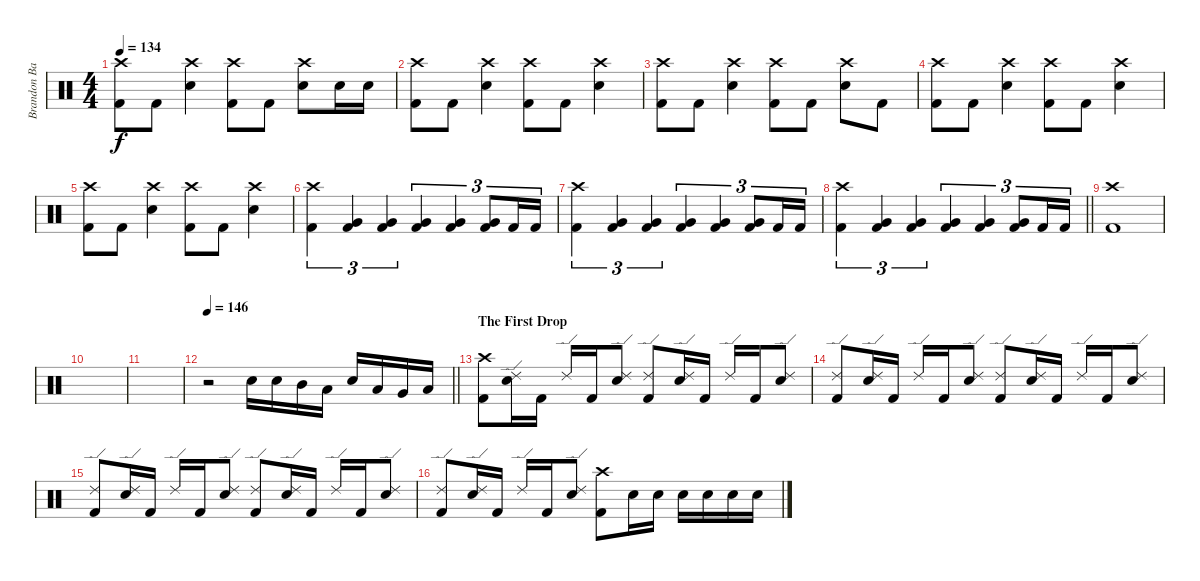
\track ("Brandon Barnes - Drums" "Brandon Ba") {instrument percussion}
\staff {score}
\articulation defaults
\ts (4 4)
\tempo 134
\clef neutral
\ks c
("Crash high (hit)" "Kick (hit) 2").8{dy f} "Kick (hit) 2".8 ("Snare (hit) 2" "Crash high (hit)").4 ("Crash high (hit)" "Kick (hit) 2").8 "Kick (hit) 2".8 ("Snare (hit) 2" "Crash high (hit)").8 "Snare (hit) 2".16 "Snare (hit) 2".16 |
("Crash high (hit)" "Kick (hit) 2").8 "Kick (hit) 2".8 ("Snare (hit) 2" "Crash high (hit)").4 ("Crash high (hit)" "Kick (hit) 2").8 "Kick (hit) 2".8 ("Snare (hit) 2" "Crash high (hit)").4 |
("Crash high (hit)" "Kick (hit) 2").8 "Kick (hit) 2".8 ("Snare (hit) 2" "Crash high (hit)").4 ("Crash high (hit)" "Kick (hit) 2").8 "Kick (hit) 2".8 ("Snare (hit) 2" "Crash high (hit)").8 "Kick (hit) 2".8 |
("Crash high (hit)" "Kick (hit) 2").8 "Kick (hit) 2".8 ("Snare (hit) 2" "Crash high (hit)").4 ("Crash high (hit)" "Kick (hit) 2").8 "Kick (hit) 2".8 ("Snare (hit) 2" "Crash high (hit)").4 |
("Crash high (hit)" "Kick (hit) 2").8 "Kick (hit) 2".8 ("Snare (hit) 2" "Crash high (hit)").4 ("Crash high (hit)" "Kick (hit) 2").8 "Kick (hit) 2".8 ("Snare (hit) 2" "Crash high (hit)").4 |
("Crash high (hit)" "Kick (hit) 2").4{tu (3 2)} ("Very Low Tom (hit)" "Kick (hit) 2").4{tu (3 2)} ("Very Low Tom (hit)" "Kick (hit) 2").4{tu (3 2)} ("Very Low Tom (hit)" "Kick (hit) 2").4{tu (3 2)} ("Very Low Tom (hit)" "Kick (hit) 2").4{tu (3 2)} ("Very Low Tom (hit)" "Kick (hit) 2").8{tu (3 2)} "Kick (hit) 2".16{tu (3 2)} "Kick (hit) 2".16{tu (3 2)} |
("Crash high (hit)" "Kick (hit) 2").4{tu (3 2)} ("Very Low Tom (hit)" "Kick (hit) 2").4{tu (3 2)} ("Very Low Tom (hit)" "Kick (hit) 2").4{tu (3 2)} ("Very Low Tom (hit)" "Kick (hit) 2").4{tu (3 2)} ("Very Low Tom (hit)" "Kick (hit) 2").4{tu (3 2)} ("Very Low Tom (hit)" "Kick (hit) 2").8{tu (3 2)} "Kick (hit) 2".16{tu (3 2)} "Kick (hit) 2".16{tu (3 2)} |
\barLineRight lightlight
("Crash high (hit)" "Kick (hit) 2").4{tu (3 2)} ("Very Low Tom (hit)" "Kick (hit) 2").4{tu (3 2)} ("Very Low Tom (hit)" "Kick (hit) 2").4{tu (3 2)} ("Very Low Tom (hit)" "Kick (hit) 2").4{tu (3 2)} ("Very Low Tom (hit)" "Kick (hit) 2").4{tu (3 2)} ("Very Low Tom (hit)" "Kick (hit) 2").8{tu (3 2)} "Kick (hit) 2".16{tu (3 2)} "Kick (hit) 2".16{tu (3 2)} |
("Crash high (hit)" "Kick (hit) 2").1 |
|
|
\tempo 146
\barLineRight lightlight
r.2{volume 11} "Snare (hit) 2".16 "Snare (hit) 2".16 "Mid Tom (hit)".16 "Low Tom (hit)".16 "Snare (hit) 2".16 "Low Tom (hit)".16 "Very Low Tom (hit)".16 "Low Floor Tom (hit)".16 |
\section ("" "The First Drop")
("Crash high (hit)" "Kick (hit) 2").8 ("Snare (hit) 2" "Ride (edge) 2").16 "Kick (hit) 2".16 "Ride (edge) 2".16 "Kick (hit) 2".16 ("Snare (hit) 2" "Ride (edge) 2").8 ("Ride (edge) 2" "Kick (hit) 2").8 ("Snare (hit) 2" "Ride (edge) 2").16 "Kick (hit) 2".16 "Ride (edge) 2".16 "Kick (hit) 2".16 ("Snare (hit) 2" "Ride (edge) 2").8 |
("Ride (edge) 2" "Kick (hit) 2").8 ("Snare (hit) 2" "Ride (edge) 2").16 "Kick (hit) 2".16 "Ride (edge) 2".16 "Kick (hit) 2".16 ("Snare (hit) 2" "Ride (edge) 2").8 ("Ride (edge) 2" "Kick (hit) 2").8 ("Snare (hit) 2" "Ride (edge) 2").16 "Kick (hit) 2".16 "Ride (edge) 2".16 "Kick (hit) 2".16 ("Snare (hit) 2" "Ride (edge) 2").8 |
("Ride (edge) 2" "Kick (hit) 2").8 ("Snare (hit) 2" "Ride (edge) 2").16 "Kick (hit) 2".16 "Ride (edge) 2".16 "Kick (hit) 2".16 ("Snare (hit) 2" "Ride (edge) 2").8 ("Ride (edge) 2" "Kick (hit) 2").8 ("Snare (hit) 2" "Ride (edge) 2").16 "Kick (hit) 2".16 "Ride (edge) 2".16 "Kick (hit) 2".16 ("Snare (hit) 2" "Ride (edge) 2").8 |
("Ride (edge) 2" "Kick (hit) 2").8 ("Snare (hit) 2" "Ride (edge) 2").16 "Kick (hit) 2".16 "Ride (edge) 2".16 "Kick (hit) 2".16 ("Snare (hit) 2" "Ride (edge) 2").8 ("Crash high (hit)" "Kick (hit) 2").8 "Snare (hit) 2".16 "Snare (hit) 2".16 "Snare (hit) 2".16 "Snare (hit) 2".16 "Snare (hit) 2".16 "Snare (hit) 2".16
